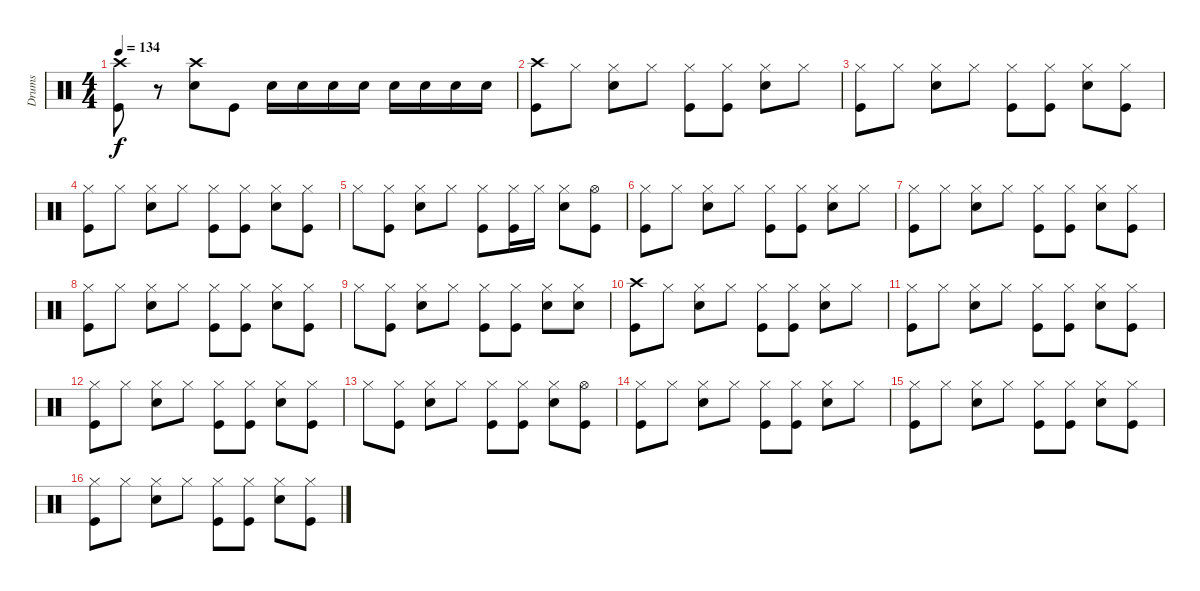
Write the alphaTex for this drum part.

\track ("Drums" "Drums") {instrument percussion}
\staff {score}
\articulation defaults
\ts (4 4)
\tempo 134
\clef neutral
\ks c
("Kick (hit)" "Crash high (hit)").8{dy f} r.8 ("Snare (hit) 2" "Crash high (hit)").8 "Kick (hit)".8 "Snare (hit) 2".16 "Snare (hit) 2".16 "Snare (hit) 2".16 "Snare (hit) 2".16 "Snare (hit) 2".16 "Snare (hit) 2".16 "Snare (hit) 2".16 "Snare (hit) 2".16 |
("Kick (hit)" "Crash high (hit)").8 "Hi-Hat (closed)".8 ("Hi-Hat (closed)" "Snare (hit) 2").8 "Hi-Hat (closed)".8 ("Kick (hit)" "Hi-Hat (closed)").8 ("Hi-Hat (closed)" "Kick (hit)").8 ("Hi-Hat (closed)" "Snare (hit) 2").8 "Hi-Hat (closed)".8 |
("Kick (hit)" "Hi-Hat (closed)").8 "Hi-Hat (closed)".8 ("Snare (hit) 2" "Hi-Hat (closed)").8 "Hi-Hat (closed)".8 ("Hi-Hat (closed)" "Kick (hit)").8 ("Hi-Hat (closed)" "Kick (hit)").8 ("Hi-Hat (closed)" "Snare (hit) 2").8 ("Hi-Hat (closed)" "Kick (hit)").8 |
("Hi-Hat (closed)" "Kick (hit)").8 "Hi-Hat (closed)".8 ("Hi-Hat (closed)" "Snare (hit) 2").8 "Hi-Hat (closed)".8 ("Hi-Hat (closed)" "Kick (hit)").8 ("Hi-Hat (closed)" "Kick (hit)").8 ("Snare (hit) 2" "Hi-Hat (closed)").8 ("Kick (hit)" "Hi-Hat (closed)").8 |
"Hi-Hat (closed)".8 ("Kick (hit)" "Hi-Hat (closed)").8 ("Hi-Hat (closed)" "Snare (hit) 2").8 "Hi-Hat (closed)".8 ("Kick (hit)" "Hi-Hat (closed)").8 ("Hi-Hat (closed)" "Kick (hit)").16 "Hi-Hat (closed)".16 ("Snare (hit) 2" "Hi-Hat (closed)").8 ("Kick (hit)" "Hi-Hat (open)").8 |
("Hi-Hat (closed)" "Kick (hit)").8 "Hi-Hat (closed)".8 ("Snare (hit) 2" "Hi-Hat (closed)").8 "Hi-Hat (closed)".8 ("Kick (hit)" "Hi-Hat (closed)").8 ("Hi-Hat (closed)" "Kick (hit)").8 ("Hi-Hat (closed)" "Snare (hit) 2").8 "Hi-Hat (closed)".8 |
("Kick (hit)" "Hi-Hat (closed)").8 "Hi-Hat (closed)".8 ("Snare (hit) 2" "Hi-Hat (closed)").8 "Hi-Hat (closed)".8 ("Hi-Hat (closed)" "Kick (hit)").8 ("Hi-Hat (closed)" "Kick (hit)").8 ("Hi-Hat (closed)" "Snare (hit) 2").8 ("Hi-Hat (closed)" "Kick (hit)").8 |
("Hi-Hat (closed)" "Kick (hit)").8 "Hi-Hat (closed)".8 ("Hi-Hat (closed)" "Snare (hit) 2").8 "Hi-Hat (closed)".8 ("Hi-Hat (closed)" "Kick (hit)").8 ("Hi-Hat (closed)" "Kick (hit)").8 ("Snare (hit) 2" "Hi-Hat (closed)").8 ("Kick (hit)" "Hi-Hat (closed)").8 |
"Hi-Hat (closed)".8 ("Kick (hit)" "Hi-Hat (closed)").8 ("Hi-Hat (closed)" "Snare (hit) 2").8 "Hi-Hat (closed)".8 ("Kick (hit)" "Hi-Hat (closed)").8 ("Hi-Hat (closed)" "Kick (hit)").8 ("Hi-Hat (closed)" "Snare (hit) 2").8 ("Hi-Hat (closed)" "Snare (hit) 2").8 |
("Crash high (hit)" "Kick (hit)").8 "Hi-Hat (closed)".8 ("Hi-Hat (closed)" "Snare (hit) 2").8 "Hi-Hat (closed)".8 ("Hi-Hat (closed)" "Kick (hit)").8 ("Kick (hit)" "Hi-Hat (closed)").8 ("Snare (hit) 2" "Hi-Hat (closed)").8 "Hi-Hat (closed)".8 |
("Hi-Hat (closed)" "Kick (hit)").8 "Hi-Hat (closed)".8 ("Hi-Hat (closed)" "Snare (hit) 2").8 "Hi-Hat (closed)".8 ("Kick (hit)" "Hi-Hat (closed)").8 ("Kick (hit)" "Hi-Hat (closed)").8 ("Snare (hit) 2" "Hi-Hat (closed)").8 ("Kick (hit)" "Hi-Hat (closed)").8 |
("Kick (hit)" "Hi-Hat (closed)").8 "Hi-Hat (closed)".8 ("Snare (hit) 2" "Hi-Hat (closed)").8 "Hi-Hat (closed)".8 ("Kick (hit)" "Hi-Hat (closed)").8 ("Kick (hit)" "Hi-Hat (closed)").8 ("Hi-Hat (closed)" "Snare (hit) 2").8 ("Hi-Hat (closed)" "Kick (hit)").8 |
"Hi-Hat (closed)".8 ("Hi-Hat (closed)" "Kick (hit)").8 ("Snare (hit) 2" "Hi-Hat (closed)").8 "Hi-Hat (closed)".8 ("Hi-Hat (closed)" "Kick (hit)").8 ("Kick (hit)" "Hi-Hat (closed)").8 ("Hi-Hat (closed)" "Snare (hit) 2").8 ("Kick (hit)" "Hi-Hat (open)").8 |
("Kick (hit)" "Hi-Hat (closed)").8 "Hi-Hat (closed)".8 ("Hi-Hat (closed)" "Snare (hit) 2").8 "Hi-Hat (closed)".8 ("Hi-Hat (closed)" "Kick (hit)").8 ("Kick (hit)" "Hi-Hat (closed)").8 ("Snare (hit) 2" "Hi-Hat (closed)").8 "Hi-Hat (closed)".8 |
("Hi-Hat (closed)" "Kick (hit)").8 "Hi-Hat (closed)".8 ("Hi-Hat (closed)" "Snare (hit) 2").8 "Hi-Hat (closed)".8 ("Kick (hit)" "Hi-Hat (closed)").8 ("Kick (hit)" "Hi-Hat (closed)").8 ("Snare (hit) 2" "Hi-Hat (closed)").8 ("Kick (hit)" "Hi-Hat (closed)").8 |
("Kick (hit)" "Hi-Hat (closed)").8 "Hi-Hat (closed)".8 ("Snare (hit) 2" "Hi-Hat (closed)").8 "Hi-Hat (closed)".8 ("Kick (hit)" "Hi-Hat (closed)").8 ("Kick (hit)" "Hi-Hat (closed)").8 ("Hi-Hat (closed)" "Snare (hit) 2").8 ("Hi-Hat (closed)" "Kick (hit)").8
